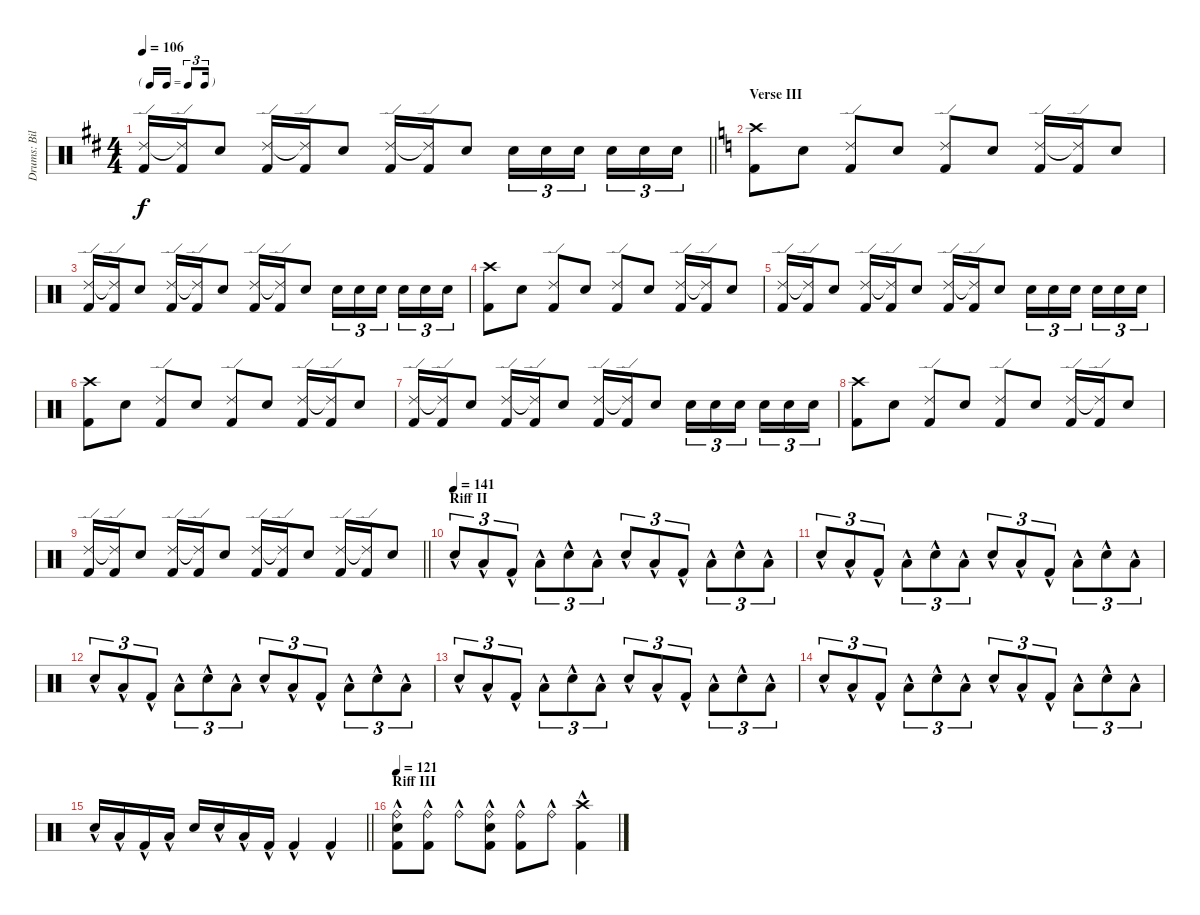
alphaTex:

\track ("Drums: Bill" "Drums: Bil") {instrument percussion}
\staff {score}
\articulation defaults
\ts (4 4)
\tf triplet16th
\tempo 106
\clef neutral
\barLineRight lightlight
\ks d
("Ride (edge) 2" "Kick (hit) 2").16{dy f} ("Ride (edge) 2"{t} "Kick (hit) 2").16 "Electric Snare (hit)".8 ("Ride (edge) 2" "Kick (hit) 2").16 ("Ride (edge) 2"{t} "Kick (hit) 2").16 "Electric Snare (hit)".8 ("Ride (edge) 2" "Kick (hit) 2").16 ("Ride (edge) 2"{t} "Kick (hit) 2").16 "Electric Snare (hit)".8 "Electric Snare (hit)".16{tu (3 2)} "Electric Snare (hit)".16{tu (3 2)} "Electric Snare (hit)".16{tu (3 2) beam splitsecondary} "Electric Snare (hit)".16{tu (3 2)} "Electric Snare (hit)".16{tu (3 2)} "Electric Snare (hit)".16{tu (3 2)} |
\section ("" "Verse III")
\ks c
("Crash high (hit)" "Kick (hit) 2").8 "Electric Snare (hit)".8 ("Ride (edge) 2" "Kick (hit) 2").8 "Electric Snare (hit)".8 ("Ride (edge) 2" "Kick (hit) 2").8 "Electric Snare (hit)".8 ("Ride (edge) 2" "Kick (hit) 2").16 ("Ride (edge) 2"{t} "Kick (hit) 2").16 "Electric Snare (hit)".8 |
("Ride (edge) 2" "Kick (hit) 2").16 ("Ride (edge) 2"{t} "Kick (hit) 2").16 "Electric Snare (hit)".8 ("Ride (edge) 2" "Kick (hit) 2").16 ("Ride (edge) 2"{t} "Kick (hit) 2").16 "Electric Snare (hit)".8 ("Ride (edge) 2" "Kick (hit) 2").16 ("Ride (edge) 2"{t} "Kick (hit) 2").16 "Electric Snare (hit)".8 "Electric Snare (hit)".16{tu (3 2)} "Electric Snare (hit)".16{tu (3 2)} "Electric Snare (hit)".16{tu (3 2) beam splitsecondary} "Electric Snare (hit)".16{tu (3 2)} "Electric Snare (hit)".16{tu (3 2)} "Electric Snare (hit)".16{tu (3 2)} |
("Crash high (hit)" "Kick (hit) 2").8 "Electric Snare (hit)".8 ("Ride (edge) 2" "Kick (hit) 2").8 "Electric Snare (hit)".8 ("Ride (edge) 2" "Kick (hit) 2").8 "Electric Snare (hit)".8 ("Ride (edge) 2" "Kick (hit) 2").16 ("Ride (edge) 2"{t} "Kick (hit) 2").16 "Electric Snare (hit)".8 |
("Ride (edge) 2" "Kick (hit) 2").16 ("Ride (edge) 2"{t} "Kick (hit) 2").16 "Electric Snare (hit)".8 ("Ride (edge) 2" "Kick (hit) 2").16 ("Ride (edge) 2"{t} "Kick (hit) 2").16 "Electric Snare (hit)".8 ("Ride (edge) 2" "Kick (hit) 2").16 ("Ride (edge) 2"{t} "Kick (hit) 2").16 "Electric Snare (hit)".8 "Electric Snare (hit)".16{tu (3 2)} "Electric Snare (hit)".16{tu (3 2)} "Electric Snare (hit)".16{tu (3 2) beam splitsecondary} "Electric Snare (hit)".16{tu (3 2)} "Electric Snare (hit)".16{tu (3 2)} "Electric Snare (hit)".16{tu (3 2)} |
("Crash high (hit)" "Kick (hit) 2").8 "Electric Snare (hit)".8 ("Ride (edge) 2" "Kick (hit) 2").8 "Electric Snare (hit)".8 ("Ride (edge) 2" "Kick (hit) 2").8 "Electric Snare (hit)".8 ("Ride (edge) 2" "Kick (hit) 2").16 ("Ride (edge) 2"{t} "Kick (hit) 2").16 "Electric Snare (hit)".8 |
("Ride (edge) 2" "Kick (hit) 2").16 ("Ride (edge) 2"{t} "Kick (hit) 2").16 "Electric Snare (hit)".8 ("Ride (edge) 2" "Kick (hit) 2").16 ("Ride (edge) 2"{t} "Kick (hit) 2").16 "Electric Snare (hit)".8 ("Ride (edge) 2" "Kick (hit) 2").16 ("Ride (edge) 2"{t} "Kick (hit) 2").16 "Electric Snare (hit)".8 "Electric Snare (hit)".16{tu (3 2)} "Electric Snare (hit)".16{tu (3 2)} "Electric Snare (hit)".16{tu (3 2) beam splitsecondary} "Electric Snare (hit)".16{tu (3 2)} "Electric Snare (hit)".16{tu (3 2)} "Electric Snare (hit)".16{tu (3 2)} |
("Crash high (hit)" "Kick (hit) 2").8 "Electric Snare (hit)".8 ("Ride (edge) 2" "Kick (hit) 2").8 "Electric Snare (hit)".8 ("Ride (edge) 2" "Kick (hit) 2").8 "Electric Snare (hit)".8 ("Ride (edge) 2" "Kick (hit) 2").16 ("Ride (edge) 2"{t} "Kick (hit) 2").16 "Electric Snare (hit)".8 |
\barLineRight lightlight
("Ride (edge) 2" "Kick (hit) 2").16 ("Ride (edge) 2"{t} "Kick (hit) 2").16 "Electric Snare (hit)".8 ("Ride (edge) 2" "Kick (hit) 2").16 ("Ride (edge) 2"{t} "Kick (hit) 2").16 "Electric Snare (hit)".8 ("Ride (edge) 2" "Kick (hit) 2").16 ("Ride (edge) 2"{t} "Kick (hit) 2").16 "Electric Snare (hit)".8 ("Ride (edge) 2" "Kick (hit) 2").16 ("Ride (edge) 2"{t} "Kick (hit) 2").16 "Electric Snare (hit)".8 |
\section ("" "Riff II")
\tempo (141)
"Electric Snare (hit)"{hac}.8{tu (3 2)} "Low Tom (hit)"{hac}.8{tu (3 2)} "Kick (hit) 2"{hac}.8{tu (3 2)} "Low Tom (hit)"{hac}.8{tu (3 2)} "Electric Snare (hit)"{hac}.8{tu (3 2)} "Low Tom (hit)"{hac}.8{tu (3 2)} "Electric Snare (hit)"{hac}.8{tu (3 2)} "Low Tom (hit)"{hac}.8{tu (3 2)} "Kick (hit) 2"{hac}.8{tu (3 2)} "Low Tom (hit)"{hac}.8{tu (3 2)} "Electric Snare (hit)"{hac}.8{tu (3 2)} "Low Tom (hit)"{hac}.8{tu (3 2)} |
"Electric Snare (hit)"{hac}.8{tu (3 2)} "Low Tom (hit)"{hac}.8{tu (3 2)} "Kick (hit) 2"{hac}.8{tu (3 2)} "Low Tom (hit)"{hac}.8{tu (3 2)} "Electric Snare (hit)"{hac}.8{tu (3 2)} "Low Tom (hit)"{hac}.8{tu (3 2)} "Electric Snare (hit)"{hac}.8{tu (3 2)} "Low Tom (hit)"{hac}.8{tu (3 2)} "Kick (hit) 2"{hac}.8{tu (3 2)} "Low Tom (hit)"{hac}.8{tu (3 2)} "Electric Snare (hit)"{hac}.8{tu (3 2)} "Low Tom (hit)"{hac}.8{tu (3 2)} |
"Electric Snare (hit)"{hac}.8{tu (3 2)} "Low Tom (hit)"{hac}.8{tu (3 2)} "Kick (hit) 2"{hac}.8{tu (3 2)} "Low Tom (hit)"{hac}.8{tu (3 2)} "Electric Snare (hit)"{hac}.8{tu (3 2)} "Low Tom (hit)"{hac}.8{tu (3 2)} "Electric Snare (hit)"{hac}.8{tu (3 2)} "Low Tom (hit)"{hac}.8{tu (3 2)} "Kick (hit) 2"{hac}.8{tu (3 2)} "Low Tom (hit)"{hac}.8{tu (3 2)} "Electric Snare (hit)"{hac}.8{tu (3 2)} "Low Tom (hit)"{hac}.8{tu (3 2)} |
"Electric Snare (hit)"{hac}.8{tu (3 2)} "Low Tom (hit)"{hac}.8{tu (3 2)} "Kick (hit) 2"{hac}.8{tu (3 2)} "Low Tom (hit)"{hac}.8{tu (3 2)} "Electric Snare (hit)"{hac}.8{tu (3 2)} "Low Tom (hit)"{hac}.8{tu (3 2)} "Electric Snare (hit)"{hac}.8{tu (3 2)} "Low Tom (hit)"{hac}.8{tu (3 2)} "Kick (hit) 2"{hac}.8{tu (3 2)} "Low Tom (hit)"{hac}.8{tu (3 2)} "Electric Snare (hit)"{hac}.8{tu (3 2)} "Low Tom (hit)"{hac}.8{tu (3 2)} |
"Electric Snare (hit)"{hac}.8{tu (3 2)} "Low Tom (hit)"{hac}.8{tu (3 2)} "Kick (hit) 2"{hac}.8{tu (3 2)} "Low Tom (hit)"{hac}.8{tu (3 2)} "Electric Snare (hit)"{hac}.8{tu (3 2)} "Low Tom (hit)"{hac}.8{tu (3 2)} "Electric Snare (hit)"{hac}.8{tu (3 2)} "Low Tom (hit)"{hac}.8{tu (3 2)} "Kick (hit) 2"{hac}.8{tu (3 2)} "Low Tom (hit)"{hac}.8{tu (3 2)} "Electric Snare (hit)"{hac}.8{tu (3 2)} "Low Tom (hit)"{hac}.8{tu (3 2)} |
\barLineRight lightlight "Electric Snare (hit)"{hac}.16 "Low Tom (hit)"{hac}.16 "Kick (hit) 2"{hac}.16 "Low Tom (hit)"{hac}.16 "Electric Snare (hit)".16 "Electric Snare (hit)"{hac}.16 "Low Tom (hit)"{hac}.16 "Kick (hit) 2"{hac}.16 "Kick (hit) 2"{hac}.4 "Kick (hit) 2"{hac}.4
|
\section ("" "Riff III")
\tempo 121
("Ride (bell)"{hac} "Snare (hit) 2"{hac} "Kick (hit) 2"{hac}).8 ("Ride (bell)"{hac} "Kick (hit) 2"{hac}).8 "Ride (bell)"{hac}.8 ("Ride (bell)"{hac} "Snare (hit) 2"{hac} "Kick (hit) 2"{hac}).8 ("Ride (bell)"{hac} "Kick (hit) 2"{hac}).8 "Ride (bell)"{hac}.8 ("Crash high (hit)"{hac} "Kick (hit) 2"{hac}).4
